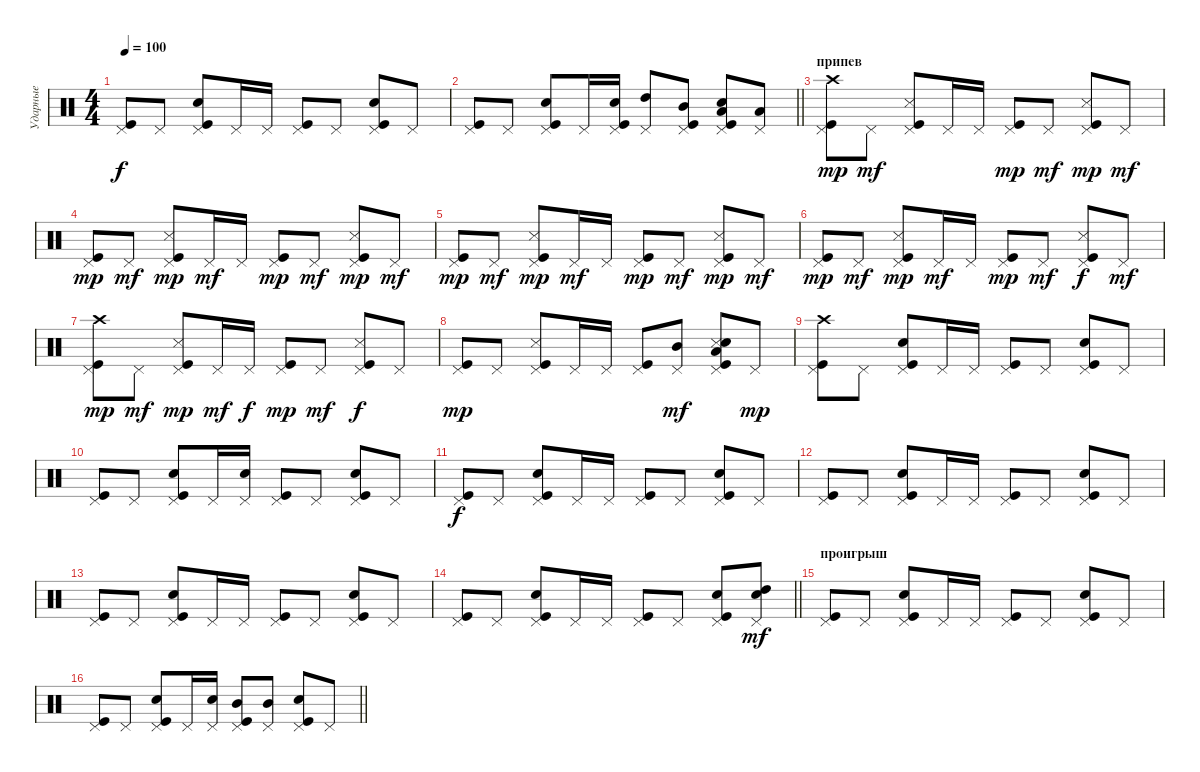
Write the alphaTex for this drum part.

\track ("Ударные" "Ударные") {instrument percussion}
\staff {score}
\articulation defaults
\ts (4 4)
\tempo 100
\clef neutral
\ks c
("Pedal Hi-Hat (hit)" "Kick (hit)").8{dy f} "Pedal Hi-Hat (hit)".8 ("Pedal Hi-Hat (hit)" "Kick (hit)" "Snare (hit) 2").8 "Pedal Hi-Hat (hit)".16 "Pedal Hi-Hat (hit)".16 ("Pedal Hi-Hat (hit)" "Kick (hit)").8 "Pedal Hi-Hat (hit)".8 ("Pedal Hi-Hat (hit)" "Kick (hit)" "Snare (hit) 2").8 "Pedal Hi-Hat (hit)".8 |
\barLineRight lightlight
("Pedal Hi-Hat (hit)" "Kick (hit)").8 "Pedal Hi-Hat (hit)".8 ("Pedal Hi-Hat (hit)" "Kick (hit)" "Snare (hit) 2").8 "Pedal Hi-Hat (hit)".16 ("Pedal Hi-Hat (hit)" "Kick (hit)" "Snare (hit) 2").16 ("Pedal Hi-Hat (hit)" "High Tom (hit)").8 ("Pedal Hi-Hat (hit)" "Mid Tom (hit)" "Kick (hit)").8 ("Pedal Hi-Hat (hit)" "Kick (hit)" "Snare (hit) 2" "Low Tom (hit)").8 ("Pedal Hi-Hat (hit)" "Low Tom (hit)").8 |
\section ("" "припев")
("Pedal Hi-Hat (hit)" "Kick (hit)" "Crash high (hit)").8{dy mp} "Pedal Hi-Hat (hit)".8{dy mf} ("Pedal Hi-Hat (hit)" "Kick (hit)" "Snare (side stick) 3").8 "Pedal Hi-Hat (hit)".16 "Pedal Hi-Hat (hit)".16 ("Pedal Hi-Hat (hit)" "Kick (hit)").8{dy mp} "Pedal Hi-Hat (hit)".8{dy mf} ("Pedal Hi-Hat (hit)" "Kick (hit)" "Snare (side stick) 3").8{dy mp} "Pedal Hi-Hat (hit)".8{dy mf} |
("Pedal Hi-Hat (hit)" "Kick (hit)").8{dy mp} "Pedal Hi-Hat (hit)".8{dy mf} ("Pedal Hi-Hat (hit)" "Kick (hit)" "Snare (side stick) 3").8{dy mp} "Pedal Hi-Hat (hit)".16{dy mf} "Pedal Hi-Hat (hit)".16 ("Kick (hit)" "Pedal Hi-Hat (hit)").8{dy mp} "Pedal Hi-Hat (hit)".8{dy mf} ("Pedal Hi-Hat (hit)" "Kick (hit)" "Snare (side stick) 3").8{dy mp} "Pedal Hi-Hat (hit)".8{dy mf} |
("Pedal Hi-Hat (hit)" "Kick (hit)").8{dy mp} "Pedal Hi-Hat (hit)".8{dy mf} ("Pedal Hi-Hat (hit)" "Kick (hit)" "Snare (side stick) 3").8{dy mp} "Pedal Hi-Hat (hit)".16{dy mf} "Pedal Hi-Hat (hit)".16 ("Pedal Hi-Hat (hit)" "Kick (hit)").8{dy mp} "Pedal Hi-Hat (hit)".8{dy mf} ("Pedal Hi-Hat (hit)" "Kick (hit)" "Snare (side stick) 3").8{dy mp} "Pedal Hi-Hat (hit)".8{dy mf} |
("Pedal Hi-Hat (hit)" "Kick (hit)").8{dy mp} "Pedal Hi-Hat (hit)".8{dy mf} ("Pedal Hi-Hat (hit)" "Kick (hit)" "Snare (side stick) 3").8{dy mp} "Pedal Hi-Hat (hit)".16{dy mf} "Pedal Hi-Hat (hit)".16 ("Pedal Hi-Hat (hit)" "Kick (hit)").8{dy mp} "Pedal Hi-Hat (hit)".8{dy mf} ("Pedal Hi-Hat (hit)" "Kick (hit)" "Snare (side stick) 3").8{dy f} "Pedal Hi-Hat (hit)".8{dy mf} |
("Pedal Hi-Hat (hit)" "Kick (hit)" "Crash high (hit)").8{dy mp} "Pedal Hi-Hat (hit)".8{dy mf} ("Pedal Hi-Hat (hit)" "Kick (hit)" "Snare (side stick) 3").8{dy mp} "Pedal Hi-Hat (hit)".16{dy mf} "Pedal Hi-Hat (hit)".16{dy f} ("Pedal Hi-Hat (hit)" "Kick (hit)").8{dy mp} "Pedal Hi-Hat (hit)".8{dy mf} ("Kick (hit)" "Pedal Hi-Hat (hit)" "Snare (side stick) 3").8{dy f} "Pedal Hi-Hat (hit)".8 |
("Pedal Hi-Hat (hit)" "Kick (hit)").8{dy mp} "Pedal Hi-Hat (hit)".8 ("Pedal Hi-Hat (hit)" "Kick (hit)" "Snare (side stick) 3").8 "Pedal Hi-Hat (hit)".16 "Pedal Hi-Hat (hit)".16 ("Pedal Hi-Hat (hit)" "Kick (hit)").8 ("Pedal Hi-Hat (hit)" "Mid Tom (hit)").8{dy mf} ("Pedal Hi-Hat (hit)" "Kick (hit)" "Snare (side stick) 3" "Low Tom (hit)" "Snare (hit) 2").8 "Pedal Hi-Hat (hit)".8{dy mp} |
("Pedal Hi-Hat (hit)" "Crash high (hit)" "Kick (hit)").8 "Pedal Hi-Hat (hit)".8 ("Pedal Hi-Hat (hit)" "Kick (hit)" "Snare (hit) 2").8 "Pedal Hi-Hat (hit)".16 "Pedal Hi-Hat (hit)".16 ("Pedal Hi-Hat (hit)" "Kick (hit)").8 "Pedal Hi-Hat (hit)".8 ("Pedal Hi-Hat (hit)" "Kick (hit)" "Snare (hit) 2").8 "Pedal Hi-Hat (hit)".8 |
("Pedal Hi-Hat (hit)" "Kick (hit)").8 "Pedal Hi-Hat (hit)".8 ("Pedal Hi-Hat (hit)" "Kick (hit)" "Snare (hit) 2").8 "Pedal Hi-Hat (hit)".16 ("Pedal Hi-Hat (hit)" "Snare (hit) 2").16 ("Pedal Hi-Hat (hit)" "Kick (hit)").8 "Pedal Hi-Hat (hit)".8 ("Pedal Hi-Hat (hit)" "Kick (hit)" "Snare (hit) 2").8 "Pedal Hi-Hat (hit)".8 |
("Pedal Hi-Hat (hit)" "Kick (hit)").8{dy f} "Pedal Hi-Hat (hit)".8 ("Pedal Hi-Hat (hit)" "Kick (hit)" "Snare (hit) 2").8 "Pedal Hi-Hat (hit)".16 "Pedal Hi-Hat (hit)".16 ("Pedal Hi-Hat (hit)" "Kick (hit)").8 "Pedal Hi-Hat (hit)".8 ("Pedal Hi-Hat (hit)" "Kick (hit)" "Snare (hit) 2").8 "Pedal Hi-Hat (hit)".8 |
("Pedal Hi-Hat (hit)" "Kick (hit)").8 "Pedal Hi-Hat (hit)".8 ("Pedal Hi-Hat (hit)" "Kick (hit)" "Snare (hit) 2").8 "Pedal Hi-Hat (hit)".16 "Pedal Hi-Hat (hit)".16 ("Kick (hit)" "Pedal Hi-Hat (hit)").8 "Pedal Hi-Hat (hit)".8 ("Pedal Hi-Hat (hit)" "Kick (hit)" "Snare (hit) 2").8 "Pedal Hi-Hat (hit)".8 |
("Pedal Hi-Hat (hit)" "Kick (hit)").8 "Pedal Hi-Hat (hit)".8 ("Pedal Hi-Hat (hit)" "Kick (hit)" "Snare (hit) 2").8 "Pedal Hi-Hat (hit)".16 "Pedal Hi-Hat (hit)".16 ("Pedal Hi-Hat (hit)" "Kick (hit)").8 "Pedal Hi-Hat (hit)".8 ("Pedal Hi-Hat (hit)" "Kick (hit)" "Snare (hit) 2").8 "Pedal Hi-Hat (hit)".8 |
\barLineRight lightlight
("Pedal Hi-Hat (hit)" "Kick (hit)").8 "Pedal Hi-Hat (hit)".8 ("Pedal Hi-Hat (hit)" "Kick (hit)" "Snare (hit) 2").8 "Pedal Hi-Hat (hit)".16 "Pedal Hi-Hat (hit)".16 ("Pedal Hi-Hat (hit)" "Kick (hit)").8 "Pedal Hi-Hat (hit)".8 ("Pedal Hi-Hat (hit)" "Kick (hit)" "Snare (hit) 2").8 ("Pedal Hi-Hat (hit)" "Snare (hit) 2" "High Tom (hit)").8{dy mf} |
\section ("" "проигрыш")
("Pedal Hi-Hat (hit)" "Kick (hit)").8 "Pedal Hi-Hat (hit)".8 ("Pedal Hi-Hat (hit)" "Kick (hit)" "Snare (hit) 2").8 "Pedal Hi-Hat (hit)".16 "Pedal Hi-Hat (hit)".16 ("Pedal Hi-Hat (hit)" "Kick (hit)").8 "Pedal Hi-Hat (hit)".8 ("Pedal Hi-Hat (hit)" "Kick (hit)" "Snare (hit) 2").8 "Pedal Hi-Hat (hit)".8 |
\barLineRight lightlight
("Pedal Hi-Hat (hit)" "Kick (hit)").8 "Pedal Hi-Hat (hit)".8 ("Pedal Hi-Hat (hit)" "Kick (hit)" "Snare (hit) 2").8 "Pedal Hi-Hat (hit)".16 ("Pedal Hi-Hat (hit)" "Snare (hit) 2").16 ("Pedal Hi-Hat (hit)" "Kick (hit)" "Mid Tom (hit)").8 ("Pedal Hi-Hat (hit)" "Mid Tom (hit)").8 ("Pedal Hi-Hat (hit)" "Kick (hit)" "Snare (hit) 2").8 "Pedal Hi-Hat (hit)".8
